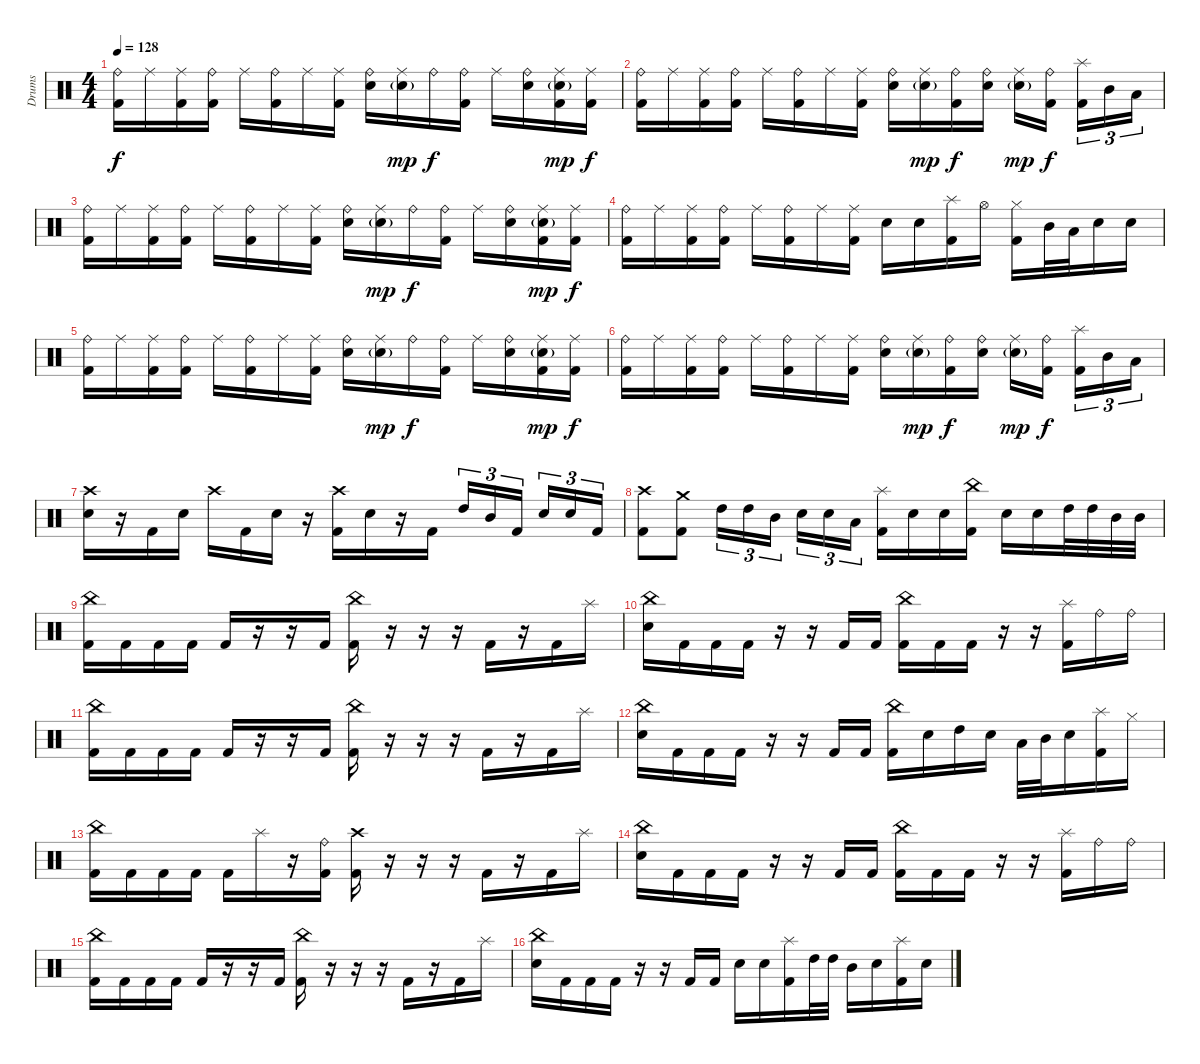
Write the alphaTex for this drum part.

\track ("Drums" "Drums") {instrument percussion}
\staff {score}
\articulation defaults
\ts (4 4)
\tempo 128
\clef neutral
\ks c
("Ride (bell)" "Kick (hit) 2").16{dy f} "Ride (middle)".16 ("Ride (middle)" "Kick (hit) 2").16 ("Ride (bell)" "Kick (hit) 2").16 "Ride (middle)".16 ("Ride (bell)" "Kick (hit) 2").16 "Ride (middle)".16 ("Ride (middle)" "Kick (hit) 2").16 ("Ride (bell)" "Electric Snare (hit)").16 ("Ride (middle)" "Electric Snare (hit)"{g}).16{dy mp} "Ride (bell)".16{dy f} ("Ride (bell)" "Kick (hit) 2").16 "Ride (middle)".16 ("Ride (bell)" "Electric Snare (hit)").16 ("Ride (middle)" "Electric Snare (hit)"{g} "Kick (hit) 2").16{dy mp} ("Ride (middle)" "Kick (hit) 2").16{dy f} |
("Ride (bell)" "Kick (hit) 2").16 "Ride (middle)".16 ("Ride (middle)" "Kick (hit) 2").16 ("Ride (bell)" "Kick (hit) 2").16 "Ride (middle)".16 ("Ride (bell)" "Kick (hit) 2").16 "Ride (middle)".16 ("Ride (middle)" "Kick (hit) 2").16 ("Ride (bell)" "Electric Snare (hit)").16 ("Ride (middle)" "Electric Snare (hit)"{g}).16{dy mp} ("Ride (bell)" "Kick (hit) 2").16{dy f} ("Ride (bell)" "Electric Snare (hit)").16 ("Ride (middle)" "Electric Snare (hit)"{g}).16{dy mp} ("Ride (bell)" "Kick (hit) 2").16{dy f} ("Splash (hit)" "Kick (hit) 2").16{tu (3 2)} "Mid Tom (hit)".16{tu (3 2)} "Low Tom (hit)".16{tu (3 2)} |
("Ride (bell)" "Kick (hit) 2").16 "Ride (middle)".16 ("Ride (middle)" "Kick (hit) 2").16 ("Ride (bell)" "Kick (hit) 2").16 "Ride (middle)".16 ("Ride (bell)" "Kick (hit) 2").16 "Ride (middle)".16 ("Ride (middle)" "Kick (hit) 2").16 ("Ride (bell)" "Electric Snare (hit)").16 ("Ride (middle)" "Electric Snare (hit)"{g}).16{dy mp} "Ride (bell)".16{dy f} ("Ride (bell)" "Kick (hit) 2").16 "Ride (middle)".16 ("Ride (bell)" "Electric Snare (hit)").16 ("Ride (middle)" "Electric Snare (hit)"{g} "Kick (hit) 2").16{dy mp} ("Ride (middle)" "Kick (hit) 2").16{dy f} |
("Ride (bell)" "Kick (hit) 2").16 "Ride (middle)".16 ("Ride (middle)" "Kick (hit) 2").16 ("Ride (bell)" "Kick (hit) 2").16 "Ride (middle)".16 ("Ride (bell)" "Kick (hit) 2").16 "Ride (middle)".16 ("Ride (middle)" "Kick (hit) 2").16 "Electric Snare (hit)".16 "Electric Snare (hit)".16 ("Splash (hit)" "Kick (hit) 2").16 "Hi-Hat (open)".16 ("Hi-Hat (closed)" "Kick (hit) 2").16 "Mid Tom (hit)".32 "Low Tom (hit)".32 "Electric Snare (hit)".16 "Electric Snare (hit)".16 |
("Ride (bell)" "Kick (hit) 2").16 "Ride (middle)".16 ("Ride (middle)" "Kick (hit) 2").16 ("Ride (bell)" "Kick (hit) 2").16 "Ride (middle)".16 ("Ride (bell)" "Kick (hit) 2").16 "Ride (middle)".16 ("Ride (middle)" "Kick (hit) 2").16 ("Ride (bell)" "Electric Snare (hit)").16 ("Ride (middle)" "Electric Snare (hit)"{g}).16{dy mp} "Ride (bell)".16{dy f} ("Ride (bell)" "Kick (hit) 2").16 "Ride (middle)".16 ("Ride (bell)" "Electric Snare (hit)").16 ("Ride (middle)" "Electric Snare (hit)"{g} "Kick (hit) 2").16{dy mp} ("Ride (middle)" "Kick (hit) 2").16{dy f} |
("Ride (bell)" "Kick (hit) 2").16 "Ride (middle)".16 ("Ride (middle)" "Kick (hit) 2").16 ("Ride (bell)" "Kick (hit) 2").16 "Ride (middle)".16 ("Ride (bell)" "Kick (hit) 2").16 "Ride (middle)".16 ("Ride (middle)" "Kick (hit) 2").16 ("Ride (bell)" "Electric Snare (hit)").16 ("Ride (middle)" "Electric Snare (hit)"{g}).16{dy mp} ("Ride (bell)" "Kick (hit) 2").16{dy f} ("Ride (bell)" "Electric Snare (hit)").16 ("Ride (middle)" "Electric Snare (hit)"{g}).16{dy mp} ("Ride (bell)" "Kick (hit) 2").16{dy f} ("Splash (hit)" "Kick (hit) 2").16{tu (3 2)} "Mid Tom (hit)".16{tu (3 2)} "Low Tom (hit)".16{tu (3 2)} |
("Crash high (hit)" "Electric Snare (hit)").16 r.16 "Kick (hit) 2".16 "Electric Snare (hit)".16 "Crash high (hit)".16 "Kick (hit) 2".16 "Electric Snare (hit)".16 r.16 ("Crash high (hit)" "Kick (hit) 2").16 "Electric Snare (hit)".16 r.16 "Kick (hit) 2".16 "High Tom (hit)".16{tu (3 2)} "Mid Tom (hit)".16{tu (3 2)} "Kick (hit) 2".16{tu (3 2)} "Electric Snare (hit)".16{tu (3 2)} "Electric Snare (hit)".16{tu (3 2)} "Kick (hit) 2".16{tu (3 2)} |
("Crash high (hit)" "Kick (hit) 2").8 ("Crash medium (hit)" "Kick (hit) 2").8 "High Tom (hit)".16{tu (3 2)} "High Tom (hit)".16{tu (3 2)} "Mid Tom (hit)".16{tu (3 2)} "Electric Snare (hit)".16{tu (3 2)} "Electric Snare (hit)".16{tu (3 2)} "Low Tom (hit)".16{tu (3 2)} ("Splash (hit)" "Kick (hit) 2").16 "Electric Snare (hit)".16 "Electric Snare (hit)".16 ("China (hit)" "Kick (hit) 2").16 "Electric Snare (hit)".16 "Electric Snare (hit)".16 "High Tom (hit)".32 "High Tom (hit)".32 "Mid Tom (hit)".32 "Mid Tom (hit)".32 |
("China (hit)" "Kick (hit) 2").16 "Kick (hit) 2".16 "Kick (hit) 2".16 "Kick (hit) 2".16 "Kick (hit) 2".16 r.16 r.16 "Kick (hit) 2".16 ("China (hit)" "Kick (hit) 2").16 r.16 r.16 r.16 "Kick (hit) 2".16 r.16 "Kick (hit) 2".16 "Splash (hit)".16 |
("China (hit)" "Electric Snare (hit)").16 "Kick (hit) 2".16 "Kick (hit) 2".16 "Kick (hit) 2".16 r.16 r.16 "Kick (hit) 2".16 "Kick (hit) 2".16 ("China (hit)" "Kick (hit) 2").16 "Kick (hit) 2".16 "Kick (hit) 2".16 r.16 r.16 ("Splash (hit)" "Kick (hit) 2").16 "Ride (bell)".16 "Ride (bell)".16 |
("China (hit)" "Kick (hit) 2").16 "Kick (hit) 2".16 "Kick (hit) 2".16 "Kick (hit) 2".16 "Kick (hit) 2".16 r.16 r.16 "Kick (hit) 2".16 ("China (hit)" "Kick (hit) 2").16 r.16 r.16 r.16 "Kick (hit) 2".16 r.16 "Kick (hit) 2".16 "Splash (hit)".16 |
("China (hit)" "Electric Snare (hit)").16 "Kick (hit) 2".16 "Kick (hit) 2".16 "Kick (hit) 2".16 r.16 r.16 "Kick (hit) 2".16 "Kick (hit) 2".16 ("China (hit)" "Kick (hit) 2").16 "Electric Snare (hit)".16 "High Tom (hit)".16 "Electric Snare (hit)".16 "Low Tom (hit)".32 "Mid Tom (hit)".32 "Electric Snare (hit)".16 ("Splash (hit)" "Kick (hit) 2").16 "Hi-Hat (closed)".16 |
("China (hit)" "Kick (hit) 2").16 "Kick (hit) 2".16 "Kick (hit) 2".16 "Kick (hit) 2".16 "Kick (hit) 2".16 "Splash (hit)".16 r.16 ("Ride (bell)" "Kick (hit) 2").16 ("Crash high (hit)" "Kick (hit) 2").16 r.16 r.16 r.16 "Kick (hit) 2".16 r.16 "Kick (hit) 2".16 "Splash (hit)".16 |
("China (hit)" "Electric Snare (hit)").16 "Kick (hit) 2".16 "Kick (hit) 2".16 "Kick (hit) 2".16 r.16 r.16 "Kick (hit) 2".16 "Kick (hit) 2".16 ("China (hit)" "Kick (hit) 2").16 "Kick (hit) 2".16 "Kick (hit) 2".16 r.16 r.16 ("Splash (hit)" "Kick (hit) 2").16 "Ride (bell)".16 "Ride (bell)".16 |
("China (hit)" "Kick (hit) 2").16 "Kick (hit) 2".16 "Kick (hit) 2".16 "Kick (hit) 2".16 "Kick (hit) 2".16 r.16 r.16 "Kick (hit) 2".16 ("China (hit)" "Kick (hit) 2").16 r.16 r.16 r.16 "Kick (hit) 2".16 r.16 "Kick (hit) 2".16 "Splash (hit)".16 |
("China (hit)" "Electric Snare (hit)").16 "Kick (hit) 2".16 "Kick (hit) 2".16 "Kick (hit) 2".16 r.16 r.16 "Kick (hit) 2".16 "Kick (hit) 2".16 "Electric Snare (hit)".16 "Electric Snare (hit)".16 ("Splash (hit)" "Kick (hit) 2").16 "High Tom (hit)".32 "High Tom (hit)".32 "Mid Tom (hit)".16 "Electric Snare (hit)".16 ("Splash (hit)" "Kick (hit) 2").16 "Electric Snare (hit)".16
